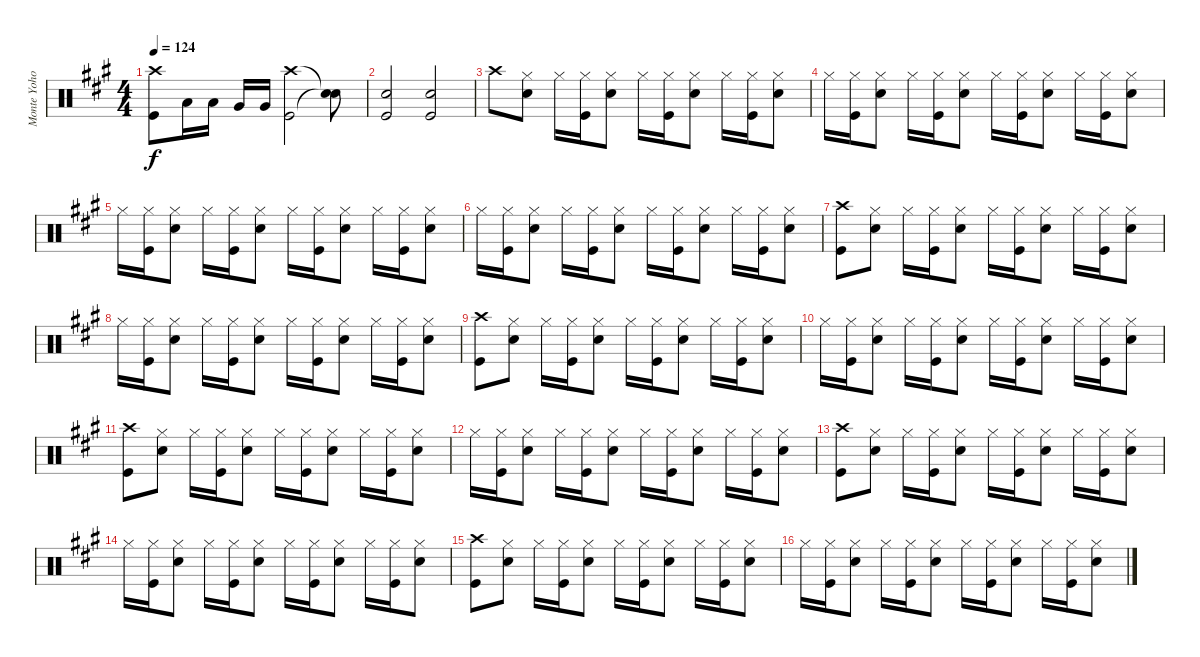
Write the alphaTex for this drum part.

\track ("Monte Yoho Drums" "Monte Yoho") {instrument percussion}
\staff {score}
\articulation defaults
\ts (4 4)
\tempo 124
\clef neutral
\ks a
("Crash high (hit)" "Kick (hit)").8{dy f} "Low Tom (hit)".16 "Low Tom (hit)".16 "Very Low Tom (hit)".16 "Very Low Tom (hit)".16 ("Crash high (hit)" "Kick (hit)").2 ("Snare (hit)"{t} "Snare (hit)"{t}).8 |
("Snare (hit) 2" "Kick (hit)").2 ("Snare (hit) 2" "Kick (hit)").2 |
"Crash high (hit)".8 ("Hi-Hat (closed)" "Snare (hit) 2").8 "Hi-Hat (closed)".16 ("Hi-Hat (closed)" "Kick (hit)").16 ("Hi-Hat (closed)" "Snare (hit) 2").8 "Hi-Hat (closed)".16 ("Hi-Hat (closed)" "Kick (hit)").16 ("Hi-Hat (closed)" "Snare (hit) 2").8 "Hi-Hat (closed)".16 ("Hi-Hat (closed)" "Kick (hit)").16 ("Hi-Hat (closed)" "Snare (hit) 2").8 |
"Hi-Hat (closed)".16 ("Hi-Hat (closed)" "Kick (hit)").16 ("Hi-Hat (closed)" "Snare (hit) 2").8 "Hi-Hat (closed)".16 ("Hi-Hat (closed)" "Kick (hit)").16 ("Hi-Hat (closed)" "Snare (hit) 2").8 "Hi-Hat (closed)".16 ("Hi-Hat (closed)" "Kick (hit)").16 ("Hi-Hat (closed)" "Snare (hit) 2").8 "Hi-Hat (closed)".16 ("Hi-Hat (closed)" "Kick (hit)").16 ("Hi-Hat (closed)" "Snare (hit) 2").8 |
"Hi-Hat (closed)".16 ("Hi-Hat (closed)" "Kick (hit)").16 ("Hi-Hat (closed)" "Snare (hit) 2").8 "Hi-Hat (closed)".16 ("Hi-Hat (closed)" "Kick (hit)").16 ("Hi-Hat (closed)" "Snare (hit) 2").8 "Hi-Hat (closed)".16 ("Hi-Hat (closed)" "Kick (hit)").16 ("Hi-Hat (closed)" "Snare (hit) 2").8 "Hi-Hat (closed)".16 ("Hi-Hat (closed)" "Kick (hit)").16 ("Hi-Hat (closed)" "Snare (hit) 2").8 |
"Hi-Hat (closed)".16 ("Hi-Hat (closed)" "Kick (hit)").16 ("Hi-Hat (closed)" "Snare (hit) 2").8 "Hi-Hat (closed)".16 ("Hi-Hat (closed)" "Kick (hit)").16 ("Hi-Hat (closed)" "Snare (hit) 2").8 "Hi-Hat (closed)".16 ("Hi-Hat (closed)" "Kick (hit)").16 ("Hi-Hat (closed)" "Snare (hit) 2").8 "Hi-Hat (closed)".16 ("Hi-Hat (closed)" "Kick (hit)").16 ("Hi-Hat (closed)" "Snare (hit) 2").8 |
("Crash high (hit)" "Kick (hit)").8 ("Hi-Hat (closed)" "Snare (hit) 2").8 "Hi-Hat (closed)".16 ("Hi-Hat (closed)" "Kick (hit)").16 ("Hi-Hat (closed)" "Snare (hit) 2").8 "Hi-Hat (closed)".16 ("Hi-Hat (closed)" "Kick (hit)").16 ("Hi-Hat (closed)" "Snare (hit) 2").8 "Hi-Hat (closed)".16 ("Hi-Hat (closed)" "Kick (hit)").16 ("Hi-Hat (closed)" "Snare (hit) 2").8 |
"Hi-Hat (closed)".16 ("Hi-Hat (closed)" "Kick (hit)").16 ("Hi-Hat (closed)" "Snare (hit) 2").8 "Hi-Hat (closed)".16 ("Hi-Hat (closed)" "Kick (hit)").16 ("Hi-Hat (closed)" "Snare (hit) 2").8 "Hi-Hat (closed)".16 ("Hi-Hat (closed)" "Kick (hit)").16 ("Hi-Hat (closed)" "Snare (hit) 2").8 "Hi-Hat (closed)".16 ("Hi-Hat (closed)" "Kick (hit)").16 ("Hi-Hat (closed)" "Snare (hit) 2").8 |
("Crash high (hit)" "Kick (hit)").8 ("Hi-Hat (closed)" "Snare (hit) 2").8 "Hi-Hat (closed)".16 ("Hi-Hat (closed)" "Kick (hit)").16 ("Hi-Hat (closed)" "Snare (hit) 2").8 "Hi-Hat (closed)".16 ("Hi-Hat (closed)" "Kick (hit)").16 ("Hi-Hat (closed)" "Snare (hit) 2").8 "Hi-Hat (closed)".16 ("Hi-Hat (closed)" "Kick (hit)").16 ("Hi-Hat (closed)" "Snare (hit) 2").8 |
"Hi-Hat (closed)".16 ("Hi-Hat (closed)" "Kick (hit)").16 ("Hi-Hat (closed)" "Snare (hit) 2").8 "Hi-Hat (closed)".16 ("Hi-Hat (closed)" "Kick (hit)").16 ("Hi-Hat (closed)" "Snare (hit) 2").8 "Hi-Hat (closed)".16 ("Hi-Hat (closed)" "Kick (hit)").16 ("Hi-Hat (closed)" "Snare (hit) 2").8 "Hi-Hat (closed)".16 ("Hi-Hat (closed)" "Kick (hit)").16 ("Hi-Hat (closed)" "Snare (hit) 2").8 |
("Crash high (hit)" "Kick (hit)").8 ("Hi-Hat (closed)" "Snare (hit) 2").8 "Hi-Hat (closed)".16 ("Hi-Hat (closed)" "Kick (hit)").16 ("Hi-Hat (closed)" "Snare (hit) 2").8 "Hi-Hat (closed)".16 ("Hi-Hat (closed)" "Kick (hit)").16 ("Hi-Hat (closed)" "Snare (hit) 2").8 "Hi-Hat (closed)".16 ("Hi-Hat (closed)" "Kick (hit)").16 ("Hi-Hat (closed)" "Snare (hit) 2").8 |
"Hi-Hat (closed)".16 ("Hi-Hat (closed)" "Kick (hit)").16 ("Hi-Hat (closed)" "Snare (hit) 2").8 "Hi-Hat (closed)".16 ("Hi-Hat (closed)" "Kick (hit)").16 ("Hi-Hat (closed)" "Snare (hit) 2").8 "Hi-Hat (closed)".16 ("Hi-Hat (closed)" "Kick (hit)").16 ("Hi-Hat (closed)" "Snare (hit) 2").8 "Hi-Hat (closed)".16 ("Hi-Hat (closed)" "Kick (hit)").16 ("Hi-Hat (closed)" "Snare (hit) 2").8 |
("Crash high (hit)" "Kick (hit)").8 ("Hi-Hat (closed)" "Snare (hit) 2").8 "Hi-Hat (closed)".16 ("Hi-Hat (closed)" "Kick (hit)").16 ("Hi-Hat (closed)" "Snare (hit) 2").8 "Hi-Hat (closed)".16 ("Hi-Hat (closed)" "Kick (hit)").16 ("Hi-Hat (closed)" "Snare (hit) 2").8 "Hi-Hat (closed)".16 ("Hi-Hat (closed)" "Kick (hit)").16 ("Hi-Hat (closed)" "Snare (hit) 2").8 |
"Hi-Hat (closed)".16 ("Hi-Hat (closed)" "Kick (hit)").16 ("Hi-Hat (closed)" "Snare (hit) 2").8 "Hi-Hat (closed)".16 ("Hi-Hat (closed)" "Kick (hit)").16 ("Hi-Hat (closed)" "Snare (hit) 2").8 "Hi-Hat (closed)".16 ("Hi-Hat (closed)" "Kick (hit)").16 ("Hi-Hat (closed)" "Snare (hit) 2").8 "Hi-Hat (closed)".16 ("Hi-Hat (closed)" "Kick (hit)").16 ("Hi-Hat (closed)" "Snare (hit) 2").8 |
("Crash high (hit)" "Kick (hit)").8 ("Hi-Hat (closed)" "Snare (hit) 2").8 "Hi-Hat (closed)".16 ("Hi-Hat (closed)" "Kick (hit)").16 ("Hi-Hat (closed)" "Snare (hit) 2").8 "Hi-Hat (closed)".16 ("Hi-Hat (closed)" "Kick (hit)").16 ("Hi-Hat (closed)" "Snare (hit) 2").8 "Hi-Hat (closed)".16 ("Hi-Hat (closed)" "Kick (hit)").16 ("Hi-Hat (closed)" "Snare (hit) 2").8 |
"Hi-Hat (closed)".16 ("Hi-Hat (closed)" "Kick (hit)").16 ("Hi-Hat (closed)" "Snare (hit) 2").8 "Hi-Hat (closed)".16 ("Hi-Hat (closed)" "Kick (hit)").16 ("Hi-Hat (closed)" "Snare (hit) 2").8 "Hi-Hat (closed)".16 ("Hi-Hat (closed)" "Kick (hit)").16 ("Hi-Hat (closed)" "Snare (hit) 2").8 "Hi-Hat (closed)".16 ("Hi-Hat (closed)" "Kick (hit)").16 ("Hi-Hat (closed)" "Snare (hit) 2").8
